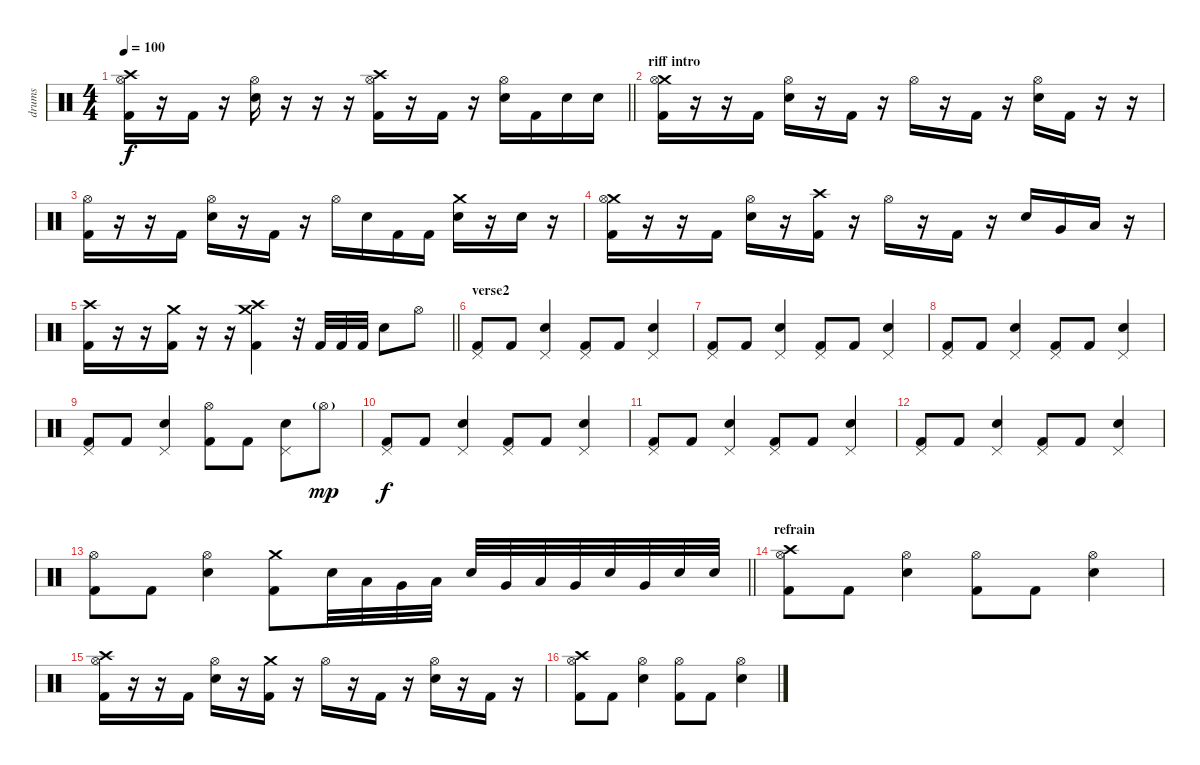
\track ("drums" "drums") {instrument percussion}
\staff {score}
\articulation defaults
\ts (4 4)
\tempo 100
\clef neutral
\barLineRight lightlight
\ks c
("Crash high (hit)" "Hi-Hat (open)" "Kick (hit) 2").16{dy f} r.16 "Kick (hit) 2".16 r.16 ("Hi-Hat (open)" "Electric Snare (hit)").16 r.16 r.16 r.16 ("Crash high (hit)" "Hi-Hat (open)" "Kick (hit) 2").16 r.16 "Kick (hit) 2".16 r.16 ("Hi-Hat (open)" "Electric Snare (hit)").16 "Kick (hit) 2".16 "Electric Snare (hit)".16 "Electric Snare (hit)".16 |
\section ("" "riff intro")
("Crash medium (hit)" "Hi-Hat (open)" "Kick (hit) 2").16 r.16 r.16 "Kick (hit) 2".16 ("Hi-Hat (open)" "Electric Snare (hit)").16 r.16 "Kick (hit) 2".16 r.16 "Hi-Hat (open)".16 r.16 "Kick (hit) 2".16 r.16 ("Hi-Hat (open)" "Electric Snare (hit)").16 "Kick (hit) 2".16 r.16 r.16 |
("Hi-Hat (open)" "Kick (hit) 2").16 r.16 r.16 "Kick (hit) 2".16 ("Hi-Hat (open)" "Electric Snare (hit)").16 r.16 "Kick (hit) 2".16 r.16 "Hi-Hat (open)".16 "Electric Snare (hit)".16 "Kick (hit) 2".16 "Kick (hit) 2".16 ("Crash medium (hit)" "Electric Snare (hit)").16 r.16 "Electric Snare (hit)".16 r.16 |
("Crash medium (hit)" "Hi-Hat (open)" "Kick (hit) 2").16 r.16 r.16 "Kick (hit) 2".16 ("Hi-Hat (open)" "Electric Snare (hit)").16 r.16 ("Crash high (hit)" "Kick (hit) 2").16 r.16 "Hi-Hat (open)".16 r.16 "Kick (hit) 2".16 r.16 "Electric Snare (hit)".16 "Very Low Tom (hit)".16 "Low Floor Tom (hit)".16 r.16 |
\barLineRight lightlight
("Crash high (hit)" "Kick (hit) 2").16 r.16 r.16 ("Crash medium (hit)" "Kick (hit) 2").16 r.16 r.16 ("Crash medium (hit)" "Crash high (hit)" "Kick (hit) 2").4 r.32 "Kick (hit) 2".32 "Kick (hit) 2".32 "Kick (hit) 2".32 "Electric Snare (hit)".8 "Hi-Hat (open)".8 |
\section ("" "verse2")
("Pedal Hi-Hat (hit)" "Kick (hit) 2").8 "Kick (hit) 2".8 ("Pedal Hi-Hat (hit)" "Electric Snare (hit)").4 ("Pedal Hi-Hat (hit)" "Kick (hit) 2").8 "Kick (hit) 2".8 ("Pedal Hi-Hat (hit)" "Electric Snare (hit)").4 |
("Pedal Hi-Hat (hit)" "Kick (hit) 2").8 "Kick (hit) 2".8 ("Pedal Hi-Hat (hit)" "Electric Snare (hit)").4 ("Pedal Hi-Hat (hit)" "Kick (hit) 2").8 "Kick (hit) 2".8 ("Pedal Hi-Hat (hit)" "Electric Snare (hit)").4 |
("Pedal Hi-Hat (hit)" "Kick (hit) 2").8 "Kick (hit) 2".8 ("Pedal Hi-Hat (hit)" "Electric Snare (hit)").4 ("Pedal Hi-Hat (hit)" "Kick (hit) 2").8 "Kick (hit) 2".8 ("Pedal Hi-Hat (hit)" "Electric Snare (hit)").4 |
("Pedal Hi-Hat (hit)" "Kick (hit) 2").8 "Kick (hit) 2".8 ("Pedal Hi-Hat (hit)" "Electric Snare (hit)").4 ("Hi-Hat (open)" "Kick (hit) 2").8 "Kick (hit) 2".8 ("Pedal Hi-Hat (hit)" "Electric Snare (hit)").8 "Hi-Hat (open)"{g}.8{dy mp} |
("Pedal Hi-Hat (hit)" "Kick (hit) 2").8{dy f} "Kick (hit) 2".8 ("Pedal Hi-Hat (hit)" "Electric Snare (hit)").4 ("Pedal Hi-Hat (hit)" "Kick (hit) 2").8 "Kick (hit) 2".8 ("Pedal Hi-Hat (hit)" "Electric Snare (hit)").4 |
("Pedal Hi-Hat (hit)" "Kick (hit) 2").8 "Kick (hit) 2".8 ("Pedal Hi-Hat (hit)" "Electric Snare (hit)").4 ("Pedal Hi-Hat (hit)" "Kick (hit) 2").8 "Kick (hit) 2".8 ("Pedal Hi-Hat (hit)" "Electric Snare (hit)").4 |
("Pedal Hi-Hat (hit)" "Kick (hit) 2").8 "Kick (hit) 2".8 ("Pedal Hi-Hat (hit)" "Electric Snare (hit)").4 ("Pedal Hi-Hat (hit)" "Kick (hit) 2").8 "Kick (hit) 2".8 ("Pedal Hi-Hat (hit)" "Electric Snare (hit)").4 |
\barLineRight lightlight
("Hi-Hat (open)" "Kick (hit) 2").8 "Kick (hit) 2".8 ("Hi-Hat (open)" "Electric Snare (hit)").4 ("Crash medium (hit)" "Kick (hit) 2").8 "Electric Snare (hit)".32 "Low Tom (hit)".32 "Very Low Tom (hit)".32 "Low Floor Tom (hit)".32 "Electric Snare (hit)".32 "Very Low Tom (hit)".32 "Low Tom (hit)".32 "Very Low Tom (hit)".32 "Electric Snare (hit)".32 "Very Low Tom (hit)".32 "Electric Snare (hit)".32 "Electric Snare (hit)".32 |
\section ("" "refrain")
("Hi-Hat (open)" "Crash high (hit)" "Kick (hit) 2").8 "Kick (hit) 2".8 ("Hi-Hat (open)" "Electric Snare (hit)").4 ("Hi-Hat (open)" "Kick (hit) 2").8 "Kick (hit) 2".8 ("Hi-Hat (open)" "Electric Snare (hit)").4 |
("Crash high (hit)" "Hi-Hat (open)" "Kick (hit) 2").16 r.16 r.16 "Kick (hit) 2".16 ("Hi-Hat (open)" "Electric Snare (hit)").16 r.16 ("Crash medium (hit)" "Kick (hit) 2").16 r.16 "Hi-Hat (open)".16 r.16 "Kick (hit) 2".16 r.16 ("Hi-Hat (open)" "Electric Snare (hit)").16 r.16 "Kick (hit) 2".16 r.16 |
("Hi-Hat (open)" "Crash high (hit)" "Kick (hit) 2").8 "Kick (hit) 2".8 ("Hi-Hat (open)" "Electric Snare (hit)").4 ("Hi-Hat (open)" "Kick (hit) 2").8 "Kick (hit) 2".8 ("Hi-Hat (open)" "Electric Snare (hit)").4
